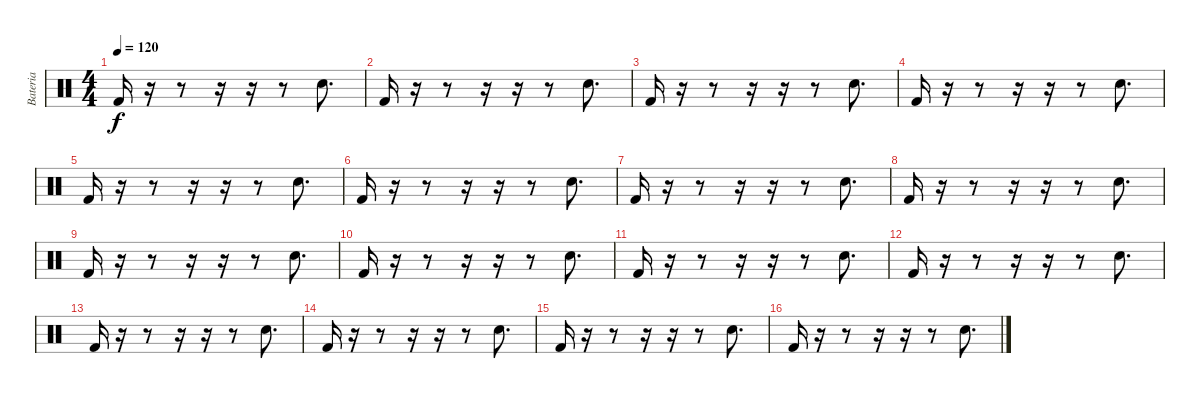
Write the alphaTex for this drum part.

\track ("Bateria" "Bateria") {instrument percussion bank 127}
\staff {score}
\articulation defaults
\ts (4 4)
\tempo 120
\clef neutral
\ks c "Kick (hit) 2".16{dy f}
r.16 r.8 r.16 r.16 r.8 "Snare (hit) 2".8{d} |
"Kick (hit) 2".16 r.16 r.8 r.16 r.16 r.8 "Snare (hit) 2".8{d} |
"Kick (hit) 2".16 r.16 r.8 r.16 r.16 r.8 "Snare (hit) 2".8{d} |
"Kick (hit) 2".16 r.16 r.8 r.16 r.16 r.8 "Snare (hit) 2".8{d} |
"Kick (hit) 2".16 r.16 r.8 r.16 r.16 r.8 "Snare (hit) 2".8{d} |
"Kick (hit) 2".16 r.16 r.8 r.16 r.16 r.8 "Snare (hit) 2".8{d} |
"Kick (hit) 2".16 r.16 r.8 r.16 r.16 r.8 "Snare (hit) 2".8{d} |
"Kick (hit) 2".16 r.16 r.8 r.16 r.16 r.8 "Snare (hit) 2".8{d} |
"Kick (hit) 2".16 r.16 r.8 r.16 r.16 r.8 "Snare (hit) 2".8{d} |
"Kick (hit) 2".16 r.16 r.8 r.16 r.16 r.8 "Snare (hit) 2".8{d} |
"Kick (hit) 2".16 r.16 r.8 r.16 r.16 r.8 "Snare (hit) 2".8{d} |
"Kick (hit) 2".16 r.16 r.8 r.16 r.16 r.8 "Snare (hit) 2".8{d} |
"Kick (hit) 2".16 r.16 r.8 r.16 r.16 r.8 "Snare (hit) 2".8{d} |
"Kick (hit) 2".16 r.16 r.8 r.16 r.16 r.8 "Snare (hit) 2".8{d} |
"Kick (hit) 2".16 r.16 r.8 r.16 r.16 r.8 "Snare (hit) 2".8{d} |
"Kick (hit) 2".16 r.16 r.8 r.16 r.16 r.8 "Snare (hit) 2".8{d}
